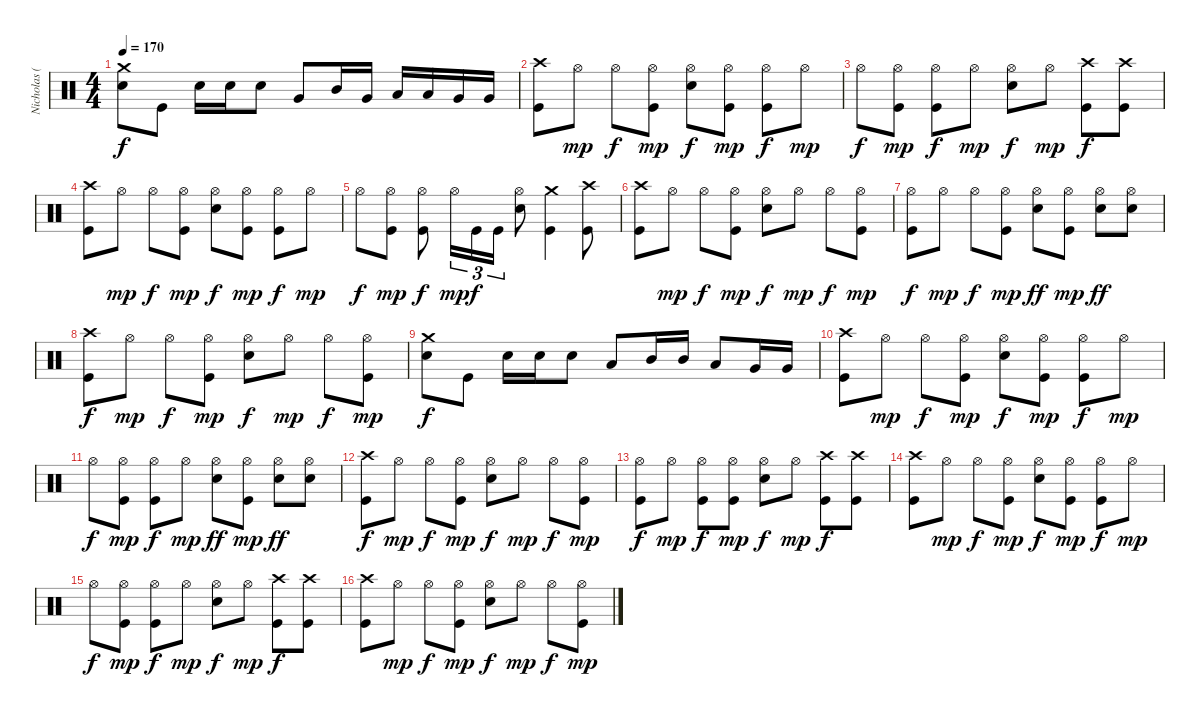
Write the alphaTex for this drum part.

\track ("Nicholas (Drums)" "Nicholas (") {instrument percussion}
\staff {score}
\articulation defaults
\ts (4 4)
\tempo 170
\clef neutral
\ks c
("Crash medium (hit)" "Electric Snare (hit)").8{dy f} "Kick (hit)".8 "Electric Snare (hit)".16 "Electric Snare (hit)".16 "Electric Snare (hit)".8 "Very Low Tom (hit)".8 "Mid Tom (hit)".16 "Very Low Tom (hit)".16 "Low Tom (hit)".16 "Low Tom (hit)".16 "Very Low Tom (hit)".16 "Very Low Tom (hit)".16 |
("Crash high (hit)" "Kick (hit)").8 "Hi-Hat (open)".8{dy mp} "Hi-Hat (open)".8{dy f} ("Hi-Hat (open)" "Kick (hit)").8{dy mp} ("Hi-Hat (open)" "Electric Snare (hit)").8{dy f} ("Hi-Hat (open)" "Kick (hit)").8{dy mp} ("Hi-Hat (open)" "Kick (hit)").8{dy f} "Hi-Hat (open)".8{dy mp} |
"Hi-Hat (open)".8{dy f} ("Hi-Hat (open)" "Kick (hit)").8{dy mp} ("Hi-Hat (open)" "Kick (hit)").8{dy f} "Hi-Hat (open)".8{dy mp} ("Hi-Hat (open)" "Electric Snare (hit)").8{dy f} "Hi-Hat (open)".8{dy mp} ("Crash high (hit)" "Kick (hit)").8{dy f} ("Crash high (hit)" "Kick (hit)").8 |
("Crash high (hit)" "Kick (hit)").8 "Hi-Hat (open)".8{dy mp} "Hi-Hat (open)".8{dy f} ("Hi-Hat (open)" "Kick (hit)").8{dy mp} ("Hi-Hat (open)" "Electric Snare (hit)").8{dy f} ("Hi-Hat (open)" "Kick (hit)").8{dy mp} ("Hi-Hat (open)" "Kick (hit)").8{dy f} "Hi-Hat (open)".8{dy mp} |
"Hi-Hat (open)".8{dy f} ("Hi-Hat (open)" "Kick (hit)").8{dy mp} ("Hi-Hat (open)" "Kick (hit)").8{dy f} "Hi-Hat (open)".16{tu (3 2) dy mp} "Kick (hit)".16{tu (3 2) dy f} "Kick (hit)".16{tu (3 2)} ("Hi-Hat (open)" "Electric Snare (hit)").8 ("Crash medium (hit)" "Kick (hit)").4 ("Crash high (hit)" "Kick (hit)").8 |
("Crash high (hit)" "Kick (hit)").8 "Hi-Hat (open)".8{dy mp} "Hi-Hat (open)".8{dy f} ("Hi-Hat (open)" "Kick (hit)").8{dy mp} ("Hi-Hat (open)" "Electric Snare (hit)").8{dy f} "Hi-Hat (open)".8{dy mp} "Hi-Hat (open)".8{dy f} ("Hi-Hat (open)" "Kick (hit)").8{dy mp} |
("Hi-Hat (open)" "Kick (hit)").8{dy f} "Hi-Hat (open)".8{dy mp} "Hi-Hat (open)".8{dy f} ("Hi-Hat (open)" "Kick (hit)").8{dy mp} ("Hi-Hat (open)" "Electric Snare (hit)").8{dy ff} ("Hi-Hat (open)" "Kick (hit)").8{dy mp} ("Hi-Hat (open)" "Electric Snare (hit)").8{dy ff} ("Hi-Hat (open)" "Electric Snare (hit)").8 |
("Crash high (hit)" "Kick (hit)").8{dy f} "Hi-Hat (open)".8{dy mp} "Hi-Hat (open)".8{dy f} ("Hi-Hat (open)" "Kick (hit)").8{dy mp} ("Hi-Hat (open)" "Electric Snare (hit)").8{dy f} "Hi-Hat (open)".8{dy mp} "Hi-Hat (open)".8{dy f} ("Hi-Hat (open)" "Kick (hit)").8{dy mp} |
("Crash medium (hit)" "Electric Snare (hit)").8{dy f} "Kick (hit)".8 "Electric Snare (hit)".16 "Electric Snare (hit)".16 "Electric Snare (hit)".8 "Low Tom (hit)".8 "Mid Tom (hit)".16 "Mid Tom (hit)".16 "Low Tom (hit)".8 "Very Low Tom (hit)".16 "Very Low Tom (hit)".16 |
("Crash high (hit)" "Kick (hit)").8 "Hi-Hat (open)".8{dy mp} "Hi-Hat (open)".8{dy f} ("Hi-Hat (open)" "Kick (hit)").8{dy mp} ("Hi-Hat (open)" "Electric Snare (hit)").8{dy f} ("Hi-Hat (open)" "Kick (hit)").8{dy mp} ("Hi-Hat (open)" "Kick (hit)").8{dy f} "Hi-Hat (open)".8{dy mp} |
"Hi-Hat (open)".8{dy f} ("Hi-Hat (open)" "Kick (hit)").8{dy mp} ("Hi-Hat (open)" "Kick (hit)").8{dy f} "Hi-Hat (open)".8{dy mp} ("Hi-Hat (open)" "Electric Snare (hit)").8{dy ff} ("Hi-Hat (open)" "Kick (hit)").8{dy mp} ("Hi-Hat (open)" "Electric Snare (hit)").8{dy ff} ("Hi-Hat (open)" "Electric Snare (hit)").8 |
("Crash high (hit)" "Kick (hit)").8{dy f} "Hi-Hat (open)".8{dy mp} "Hi-Hat (open)".8{dy f} ("Hi-Hat (open)" "Kick (hit)").8{dy mp} ("Hi-Hat (open)" "Electric Snare (hit)").8{dy f} "Hi-Hat (open)".8{dy mp} "Hi-Hat (open)".8{dy f} ("Hi-Hat (open)" "Kick (hit)").8{dy mp} |
("Hi-Hat (open)" "Kick (hit)").8{dy f} "Hi-Hat (open)".8{dy mp} ("Hi-Hat (open)" "Kick (hit)").8{dy f} ("Hi-Hat (open)" "Kick (hit)").8{dy mp} ("Hi-Hat (open)" "Electric Snare (hit)").8{dy f} "Hi-Hat (open)".8{dy mp} ("Crash high (hit)" "Kick (hit)").8{dy f} ("Crash high (hit)" "Kick (hit)").8 |
("Crash high (hit)" "Kick (hit)").8 "Hi-Hat (open)".8{dy mp} "Hi-Hat (open)".8{dy f} ("Hi-Hat (open)" "Kick (hit)").8{dy mp} ("Hi-Hat (open)" "Electric Snare (hit)").8{dy f} ("Hi-Hat (open)" "Kick (hit)").8{dy mp} ("Hi-Hat (open)" "Kick (hit)").8{dy f} "Hi-Hat (open)".8{dy mp} |
"Hi-Hat (open)".8{dy f} ("Hi-Hat (open)" "Kick (hit)").8{dy mp} ("Hi-Hat (open)" "Kick (hit)").8{dy f} "Hi-Hat (open)".8{dy mp} ("Hi-Hat (open)" "Electric Snare (hit)").8{dy f} "Hi-Hat (open)".8{dy mp} ("Crash high (hit)" "Kick (hit)").8{dy f} ("Crash high (hit)" "Kick (hit)").8 |
("Crash high (hit)" "Kick (hit)").8 "Hi-Hat (open)".8{dy mp} "Hi-Hat (open)".8{dy f} ("Hi-Hat (open)" "Kick (hit)").8{dy mp} ("Hi-Hat (open)" "Electric Snare (hit)").8{dy f} "Hi-Hat (open)".8{dy mp} "Hi-Hat (open)".8{dy f} ("Hi-Hat (open)" "Kick (hit)").8{dy mp}
